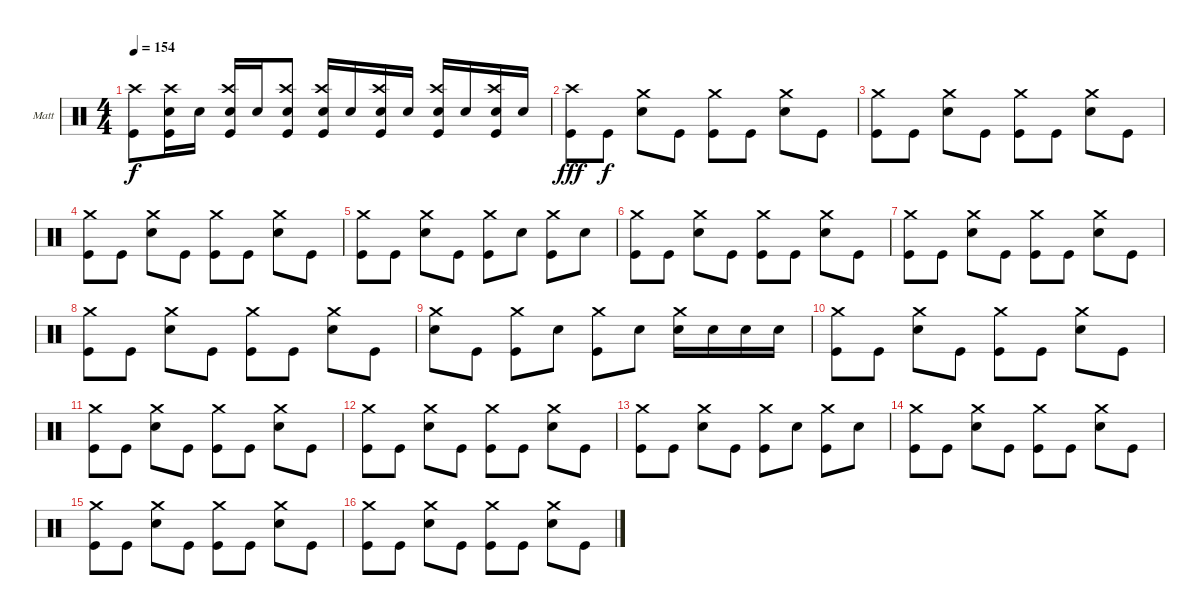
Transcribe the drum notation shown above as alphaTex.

\defaultSystemsLayout 4
\bracketExtendMode groupsimilarinstruments
\firstSystemTrackNameOrientation horizontal
\otherSystemsTrackNameOrientation horizontal
\track ("Matt Helders" "Matt") {instrument percussion}
\staff {score}
\articulation defaults
\ts (4 4)
\tempo 154
\clef neutral
\ks c
("Kick (hit)" "Crash high (hit)").8{dy f} ("Snare (hit) 2" "Crash high (hit)" "Kick (hit)").16 "Snare (hit) 2".16 ("Snare (hit) 2" "Crash high (hit)" "Kick (hit)").16 "Snare (hit) 2".16 ("Snare (hit) 2" "Crash high (hit)" "Kick (hit)").8 ("Snare (hit) 2" "Crash high (hit)" "Kick (hit)").16 "Snare (hit) 2".16 ("Snare (hit) 2" "Crash high (hit)" "Kick (hit)").16 "Snare (hit) 2".16 ("Snare (hit) 2" "Crash high (hit)" "Kick (hit)").16 "Snare (hit) 2".16 ("Snare (hit) 2" "Crash high (hit)" "Kick (hit)").16 "Snare (hit) 2".16 |
("Kick (hit)" "Crash high (hit)").8{dy fff} "Kick (hit)".8{dy f} ("Crash medium (hit)" "Snare (hit) 2").8 "Kick (hit)".8 ("Crash medium (hit)" "Kick (hit)").8 "Kick (hit)".8 ("Crash medium (hit)" "Snare (hit) 2").8 "Kick (hit)".8 |
("Crash medium (hit)" "Kick (hit)").8 "Kick (hit)".8 ("Crash medium (hit)" "Snare (hit) 2").8 "Kick (hit)".8 ("Crash medium (hit)" "Kick (hit)").8 "Kick (hit)".8 ("Crash medium (hit)" "Snare (hit) 2").8 "Kick (hit)".8 |
("Crash medium (hit)" "Kick (hit)").8 "Kick (hit)".8 ("Crash medium (hit)" "Snare (hit) 2").8 "Kick (hit)".8 ("Crash medium (hit)" "Kick (hit)").8 "Kick (hit)".8 ("Crash medium (hit)" "Snare (hit) 2").8 "Kick (hit)".8 |
("Crash medium (hit)" "Kick (hit)").8 "Kick (hit)".8 ("Crash medium (hit)" "Snare (hit) 2").8 "Kick (hit)".8 ("Crash medium (hit)" "Kick (hit)").8 "Snare (hit) 2".8 ("Crash medium (hit)" "Kick (hit)").8 "Snare (hit) 2".8 |
("Crash medium (hit)" "Kick (hit)").8 "Kick (hit)".8 ("Crash medium (hit)" "Snare (hit) 2").8 "Kick (hit)".8 ("Crash medium (hit)" "Kick (hit)").8 "Kick (hit)".8 ("Crash medium (hit)" "Snare (hit) 2").8 "Kick (hit)".8 |
("Crash medium (hit)" "Kick (hit)").8 "Kick (hit)".8 ("Crash medium (hit)" "Snare (hit) 2").8 "Kick (hit)".8 ("Crash medium (hit)" "Kick (hit)").8 "Kick (hit)".8 ("Crash medium (hit)" "Snare (hit) 2").8 "Kick (hit)".8 |
("Crash medium (hit)" "Kick (hit)").8 "Kick (hit)".8 ("Crash medium (hit)" "Snare (hit) 2").8 "Kick (hit)".8 ("Crash medium (hit)" "Kick (hit)").8 "Kick (hit)".8 ("Crash medium (hit)" "Snare (hit) 2").8 "Kick (hit)".8 |
("Crash medium (hit)" "Snare (hit) 2").8 "Kick (hit)".8 ("Crash medium (hit)" "Kick (hit)").8 "Snare (hit) 2".8 ("Crash medium (hit)" "Kick (hit)").8 "Snare (hit) 2".8 ("Crash medium (hit)" "Snare (hit) 2").16 "Snare (hit) 2".16 "Snare (hit) 2".16 "Snare (hit) 2".16 |
("Crash medium (hit)" "Kick (hit)").8 "Kick (hit)".8 ("Crash medium (hit)" "Snare (hit) 2").8 "Kick (hit)".8 ("Crash medium (hit)" "Kick (hit)").8 "Kick (hit)".8 ("Crash medium (hit)" "Snare (hit) 2").8 "Kick (hit)".8 |
("Crash medium (hit)" "Kick (hit)").8 "Kick (hit)".8 ("Crash medium (hit)" "Snare (hit) 2").8 "Kick (hit)".8 ("Crash medium (hit)" "Kick (hit)").8 "Kick (hit)".8 ("Crash medium (hit)" "Snare (hit) 2").8 "Kick (hit)".8 |
("Crash medium (hit)" "Kick (hit)").8 "Kick (hit)".8 ("Crash medium (hit)" "Snare (hit) 2").8 "Kick (hit)".8 ("Crash medium (hit)" "Kick (hit)").8 "Kick (hit)".8 ("Crash medium (hit)" "Snare (hit) 2").8 "Kick (hit)".8 |
("Crash medium (hit)" "Kick (hit)").8 "Kick (hit)".8 ("Crash medium (hit)" "Snare (hit) 2").8 "Kick (hit)".8 ("Crash medium (hit)" "Kick (hit)").8 "Snare (hit) 2".8 ("Crash medium (hit)" "Kick (hit)").8 "Snare (hit) 2".8 |
("Crash medium (hit)" "Kick (hit)").8 "Kick (hit)".8 ("Crash medium (hit)" "Snare (hit) 2").8 "Kick (hit)".8 ("Crash medium (hit)" "Kick (hit)").8 "Kick (hit)".8 ("Crash medium (hit)" "Snare (hit) 2").8 "Kick (hit)".8 |
("Crash medium (hit)" "Kick (hit)").8 "Kick (hit)".8 ("Crash medium (hit)" "Snare (hit) 2").8 "Kick (hit)".8 ("Crash medium (hit)" "Kick (hit)").8 "Kick (hit)".8 ("Crash medium (hit)" "Snare (hit) 2").8 "Kick (hit)".8 |
("Crash medium (hit)" "Kick (hit)").8 "Kick (hit)".8 ("Crash medium (hit)" "Snare (hit) 2").8 "Kick (hit)".8 ("Crash medium (hit)" "Kick (hit)").8 "Kick (hit)".8 ("Crash medium (hit)" "Snare (hit) 2").8 "Kick (hit)".8
